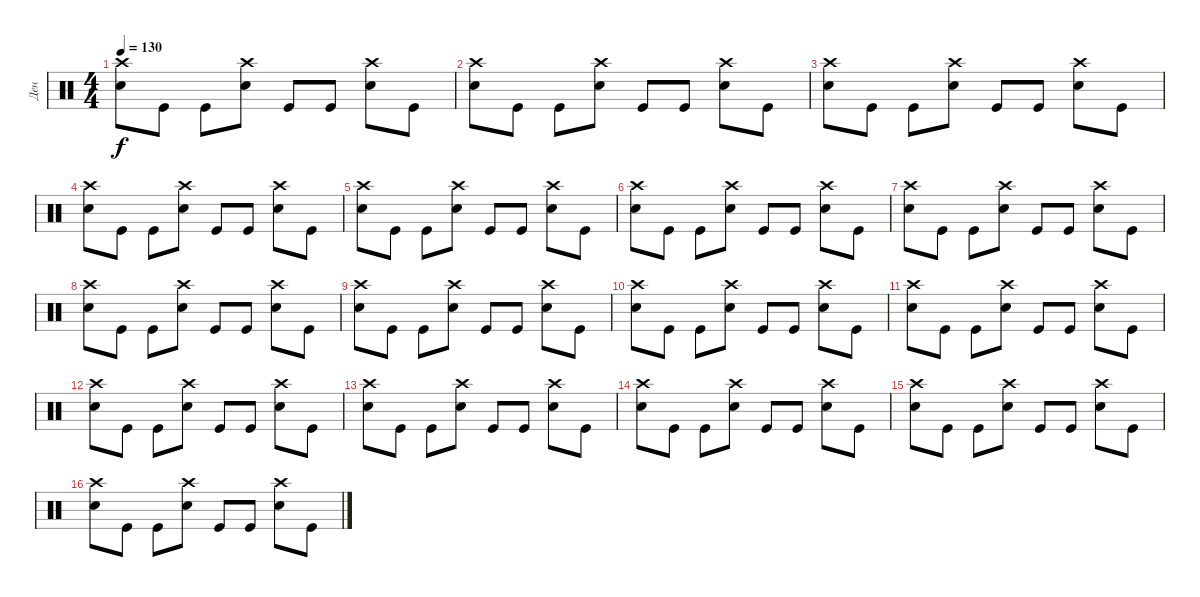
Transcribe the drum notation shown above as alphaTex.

\track ("Ден" "Ден") {instrument percussion}
\staff {score}
\articulation defaults
\ts (4 4)
\tempo 130
\clef neutral
\ks c
("Snare (hit) 2" "Crash high (hit)").8{dy f} "Kick (hit)".8 "Kick (hit)".8 ("Snare (hit) 2" "Crash high (hit)").8 "Kick (hit)".8 "Kick (hit)".8 ("Snare (hit) 2" "Crash high (hit)").8 "Kick (hit)".8 |
("Snare (hit) 2" "Crash high (hit)").8 "Kick (hit)".8 "Kick (hit)".8 ("Snare (hit) 2" "Crash high (hit)").8 "Kick (hit)".8 "Kick (hit)".8 ("Snare (hit) 2" "Crash high (hit)").8 "Kick (hit)".8 |
("Snare (hit) 2" "Crash high (hit)").8 "Kick (hit)".8 "Kick (hit)".8 ("Snare (hit) 2" "Crash high (hit)").8 "Kick (hit)".8 "Kick (hit)".8 ("Snare (hit) 2" "Crash high (hit)").8 "Kick (hit)".8 |
("Snare (hit) 2" "Crash high (hit)").8 "Kick (hit)".8 "Kick (hit)".8 ("Snare (hit) 2" "Crash high (hit)").8 "Kick (hit)".8 "Kick (hit)".8 ("Snare (hit) 2" "Crash high (hit)").8 "Kick (hit)".8 |
("Snare (hit) 2" "Crash high (hit)").8 "Kick (hit)".8 "Kick (hit)".8 ("Snare (hit) 2" "Crash high (hit)").8 "Kick (hit)".8 "Kick (hit)".8 ("Snare (hit) 2" "Crash high (hit)").8 "Kick (hit)".8 |
("Snare (hit) 2" "Crash high (hit)").8 "Kick (hit)".8 "Kick (hit)".8 ("Snare (hit) 2" "Crash high (hit)").8 "Kick (hit)".8 "Kick (hit)".8 ("Snare (hit) 2" "Crash high (hit)").8 "Kick (hit)".8 |
("Snare (hit) 2" "Crash high (hit)").8 "Kick (hit)".8 "Kick (hit)".8 ("Snare (hit) 2" "Crash high (hit)").8 "Kick (hit)".8 "Kick (hit)".8 ("Snare (hit) 2" "Crash high (hit)").8 "Kick (hit)".8 |
("Snare (hit) 2" "Crash high (hit)").8 "Kick (hit)".8 "Kick (hit)".8 ("Snare (hit) 2" "Crash high (hit)").8 "Kick (hit)".8 "Kick (hit)".8 ("Snare (hit) 2" "Crash high (hit)").8 "Kick (hit)".8 |
("Snare (hit) 2" "Crash high (hit)").8 "Kick (hit)".8 "Kick (hit)".8 ("Snare (hit) 2" "Crash high (hit)").8 "Kick (hit)".8 "Kick (hit)".8 ("Snare (hit) 2" "Crash high (hit)").8 "Kick (hit)".8 |
("Snare (hit) 2" "Crash high (hit)").8 "Kick (hit)".8 "Kick (hit)".8 ("Snare (hit) 2" "Crash high (hit)").8 "Kick (hit)".8 "Kick (hit)".8 ("Snare (hit) 2" "Crash high (hit)").8 "Kick (hit)".8 |
("Snare (hit) 2" "Crash high (hit)").8 "Kick (hit)".8 "Kick (hit)".8 ("Snare (hit) 2" "Crash high (hit)").8 "Kick (hit)".8 "Kick (hit)".8 ("Snare (hit) 2" "Crash high (hit)").8 "Kick (hit)".8 |
("Snare (hit) 2" "Crash high (hit)").8 "Kick (hit)".8 "Kick (hit)".8 ("Snare (hit) 2" "Crash high (hit)").8 "Kick (hit)".8 "Kick (hit)".8 ("Snare (hit) 2" "Crash high (hit)").8 "Kick (hit)".8 |
("Snare (hit) 2" "Crash high (hit)").8 "Kick (hit)".8 "Kick (hit)".8 ("Snare (hit) 2" "Crash high (hit)").8 "Kick (hit)".8 "Kick (hit)".8 ("Snare (hit) 2" "Crash high (hit)").8 "Kick (hit)".8 |
("Snare (hit) 2" "Crash high (hit)").8 "Kick (hit)".8 "Kick (hit)".8 ("Snare (hit) 2" "Crash high (hit)").8 "Kick (hit)".8 "Kick (hit)".8 ("Snare (hit) 2" "Crash high (hit)").8 "Kick (hit)".8 |
("Snare (hit) 2" "Crash high (hit)").8 "Kick (hit)".8 "Kick (hit)".8 ("Snare (hit) 2" "Crash high (hit)").8 "Kick (hit)".8 "Kick (hit)".8 ("Snare (hit) 2" "Crash high (hit)").8 "Kick (hit)".8 |
("Snare (hit) 2" "Crash high (hit)").8 "Kick (hit)".8 "Kick (hit)".8 ("Snare (hit) 2" "Crash high (hit)").8 "Kick (hit)".8 "Kick (hit)".8 ("Snare (hit) 2" "Crash high (hit)").8 "Kick (hit)".8
